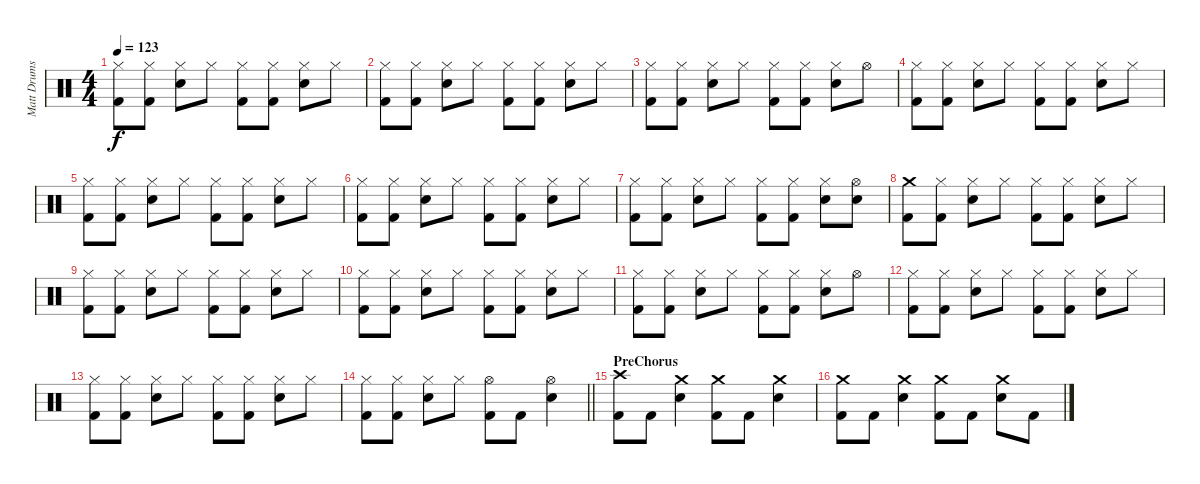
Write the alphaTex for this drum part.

\track ("Matt Drums" "Matt Drums") {instrument percussion}
\staff {score}
\articulation defaults
\ts (4 4)
\tempo 123
\clef neutral
\ks c
("Hi-Hat (closed)" "Kick (hit) 2").8{dy f} ("Hi-Hat (closed)" "Kick (hit) 2").8 ("Hi-Hat (closed)" "Snare (hit) 2").8 "Hi-Hat (closed)".8 ("Hi-Hat (closed)" "Kick (hit) 2").8 ("Hi-Hat (closed)" "Kick (hit) 2").8 ("Hi-Hat (closed)" "Snare (hit) 2").8 "Hi-Hat (closed)".8 |
("Hi-Hat (closed)" "Kick (hit) 2").8 ("Hi-Hat (closed)" "Kick (hit) 2").8 ("Hi-Hat (closed)" "Snare (hit) 2").8 "Hi-Hat (closed)".8 ("Hi-Hat (closed)" "Kick (hit) 2").8 ("Hi-Hat (closed)" "Kick (hit) 2").8 ("Hi-Hat (closed)" "Snare (hit) 2").8 "Hi-Hat (closed)".8 |
("Hi-Hat (closed)" "Kick (hit) 2").8 ("Hi-Hat (closed)" "Kick (hit) 2").8 ("Hi-Hat (closed)" "Snare (hit) 2").8 "Hi-Hat (closed)".8 ("Hi-Hat (closed)" "Kick (hit) 2").8 ("Hi-Hat (closed)" "Kick (hit) 2").8 ("Hi-Hat (closed)" "Snare (hit) 2").8 "Hi-Hat (open)".8 |
("Hi-Hat (closed)" "Kick (hit) 2").8 ("Hi-Hat (closed)" "Kick (hit) 2").8 ("Hi-Hat (closed)" "Snare (hit) 2").8 "Hi-Hat (closed)".8 ("Hi-Hat (closed)" "Kick (hit) 2").8 ("Hi-Hat (closed)" "Kick (hit) 2").8 ("Hi-Hat (closed)" "Snare (hit) 2").8 "Hi-Hat (closed)".8 |
("Hi-Hat (closed)" "Kick (hit) 2").8 ("Hi-Hat (closed)" "Kick (hit) 2").8 ("Hi-Hat (closed)" "Snare (hit) 2").8 "Hi-Hat (closed)".8 ("Hi-Hat (closed)" "Kick (hit) 2").8 ("Hi-Hat (closed)" "Kick (hit) 2").8 ("Hi-Hat (closed)" "Snare (hit) 2").8 "Hi-Hat (closed)".8 |
("Hi-Hat (closed)" "Kick (hit) 2").8 ("Hi-Hat (closed)" "Kick (hit) 2").8 ("Hi-Hat (closed)" "Snare (hit) 2").8 "Hi-Hat (closed)".8 ("Hi-Hat (closed)" "Kick (hit) 2").8 ("Hi-Hat (closed)" "Kick (hit) 2").8 ("Hi-Hat (closed)" "Snare (hit) 2").8 "Hi-Hat (closed)".8 |
("Hi-Hat (closed)" "Kick (hit) 2").8 ("Hi-Hat (closed)" "Kick (hit) 2").8 ("Hi-Hat (closed)" "Snare (hit) 2").8 "Hi-Hat (closed)".8 ("Hi-Hat (closed)" "Kick (hit) 2").8 ("Hi-Hat (closed)" "Kick (hit) 2").8 ("Hi-Hat (closed)" "Snare (hit) 2").8 ("Hi-Hat (open)" "Snare (hit) 2").8 |
("Crash medium (hit)" "Kick (hit) 2").8 ("Hi-Hat (closed)" "Kick (hit) 2").8 ("Hi-Hat (closed)" "Snare (hit) 2").8 "Hi-Hat (closed)".8 ("Hi-Hat (closed)" "Kick (hit) 2").8 ("Hi-Hat (closed)" "Kick (hit) 2").8 ("Hi-Hat (closed)" "Snare (hit) 2").8 "Hi-Hat (closed)".8 |
("Hi-Hat (closed)" "Kick (hit) 2").8 ("Hi-Hat (closed)" "Kick (hit) 2").8 ("Hi-Hat (closed)" "Snare (hit) 2").8 "Hi-Hat (closed)".8 ("Hi-Hat (closed)" "Kick (hit) 2").8 ("Hi-Hat (closed)" "Kick (hit) 2").8 ("Hi-Hat (closed)" "Snare (hit) 2").8 "Hi-Hat (closed)".8 |
("Hi-Hat (closed)" "Kick (hit) 2").8 ("Hi-Hat (closed)" "Kick (hit) 2").8 ("Hi-Hat (closed)" "Snare (hit) 2").8 "Hi-Hat (closed)".8 ("Hi-Hat (closed)" "Kick (hit) 2").8 ("Hi-Hat (closed)" "Kick (hit) 2").8 ("Hi-Hat (closed)" "Snare (hit) 2").8 "Hi-Hat (closed)".8 |
("Hi-Hat (closed)" "Kick (hit) 2").8 ("Hi-Hat (closed)" "Kick (hit) 2").8 ("Hi-Hat (closed)" "Snare (hit) 2").8 "Hi-Hat (closed)".8 ("Hi-Hat (closed)" "Kick (hit) 2").8 ("Hi-Hat (closed)" "Kick (hit) 2").8 ("Hi-Hat (closed)" "Snare (hit) 2").8 "Hi-Hat (open)".8 |
("Hi-Hat (closed)" "Kick (hit) 2").8 ("Hi-Hat (closed)" "Kick (hit) 2").8 ("Hi-Hat (closed)" "Snare (hit) 2").8 "Hi-Hat (closed)".8 ("Hi-Hat (closed)" "Kick (hit) 2").8 ("Hi-Hat (closed)" "Kick (hit) 2").8 ("Hi-Hat (closed)" "Snare (hit) 2").8 "Hi-Hat (closed)".8 |
("Hi-Hat (closed)" "Kick (hit) 2").8 ("Hi-Hat (closed)" "Kick (hit) 2").8 ("Hi-Hat (closed)" "Snare (hit) 2").8 "Hi-Hat (closed)".8 ("Hi-Hat (closed)" "Kick (hit) 2").8 ("Hi-Hat (closed)" "Kick (hit) 2").8 ("Hi-Hat (closed)" "Snare (hit) 2").8 "Hi-Hat (closed)".8 |
\barLineRight lightlight
("Hi-Hat (closed)" "Kick (hit) 2").8 ("Hi-Hat (closed)" "Kick (hit) 2").8 ("Hi-Hat (closed)" "Snare (hit) 2").8 "Hi-Hat (closed)".8 ("Hi-Hat (open)" "Kick (hit) 2").8 "Kick (hit) 2".8 ("Hi-Hat (open)" "Snare (hit) 2").4 |
\section ("" "PreChorus")
("Crash high (hit)" "Kick (hit) 2").8 "Kick (hit) 2".8 ("Crash medium (hit)" "Snare (hit) 2").4 ("Crash medium (hit)" "Kick (hit) 2").8 "Kick (hit) 2".8 ("Crash medium (hit)" "Snare (hit) 2").4 |
("Crash medium (hit)" "Kick (hit) 2").8 "Kick (hit) 2".8 ("Crash medium (hit)" "Snare (hit) 2").4 ("Crash medium (hit)" "Kick (hit) 2").8 "Kick (hit) 2".8 ("Crash medium (hit)" "Snare (hit) 2").8 "Kick (hit) 2".8
